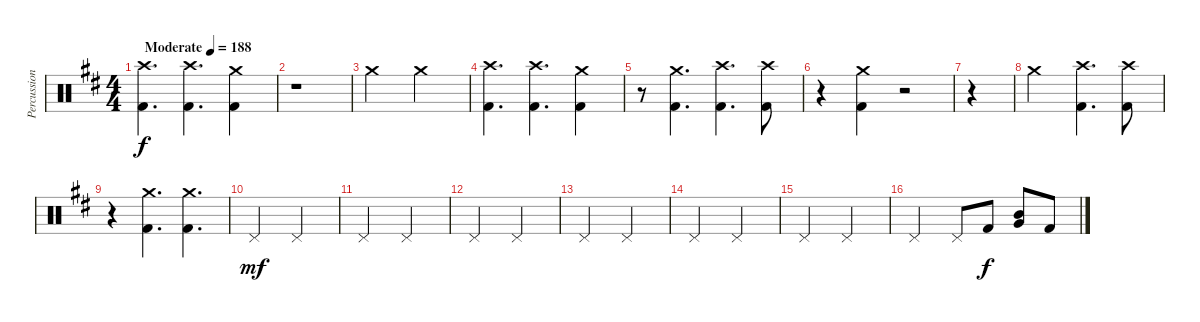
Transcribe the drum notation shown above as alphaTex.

\track ("Percussion" "Percussion") {instrument percussion}
\staff {score}
\articulation defaults
\ts (4 4)
\tempo (188 "Moderate")
\clef neutral
\ks bminor
("Kick (hit) 2" "Crash high (hit)").4{d dy f} ("Kick (hit) 2" "Crash high (hit)").4{d} ("Kick (hit) 2" "Crash medium (hit)").4 |
r.1 |
"Crash medium (hit)".2 "Crash medium (hit)".2 |
("Kick (hit) 2" "Crash high (hit)").4{d} ("Kick (hit) 2" "Crash high (hit)").4{d} ("Kick (hit) 2" "Crash medium (hit)").4 |
r.8 ("Kick (hit) 2" "Crash medium (hit)").4{d} ("Kick (hit) 2" "Crash high (hit)").4{d} ("Kick (hit) 2" "Crash high (hit)").8 |
r.4 ("Kick (hit) 2" "Crash medium (hit)").4 r.2 |
r.4 |
"Crash medium (hit)".2 ("Kick (hit) 2" "Crash high (hit)").4{d} ("Kick (hit) 2" "Crash high (hit)").8 |
r.4 ("Kick (hit) 2" "Crash medium (hit)").4{d} ("Kick (hit) 2" "Crash medium (hit)").4{d} |
"Pedal Hi-Hat (hit)".2{dy mf} "Pedal Hi-Hat (hit)".2 |
"Pedal Hi-Hat (hit)".2 "Pedal Hi-Hat (hit)".2 |
"Pedal Hi-Hat (hit)".2 "Pedal Hi-Hat (hit)".2 |
"Pedal Hi-Hat (hit)".2 "Pedal Hi-Hat (hit)".2 |
"Pedal Hi-Hat (hit)".2 "Pedal Hi-Hat (hit)".2 |
"Pedal Hi-Hat (hit)".2 "Pedal Hi-Hat (hit)".2 |
"Pedal Hi-Hat (hit)".2 "Pedal Hi-Hat (hit)".8 "Kick (hit) 2".8{dy f} ("Mid Tom (hit)" "Very Low Tom (hit)").8 "Kick (hit) 2".8
